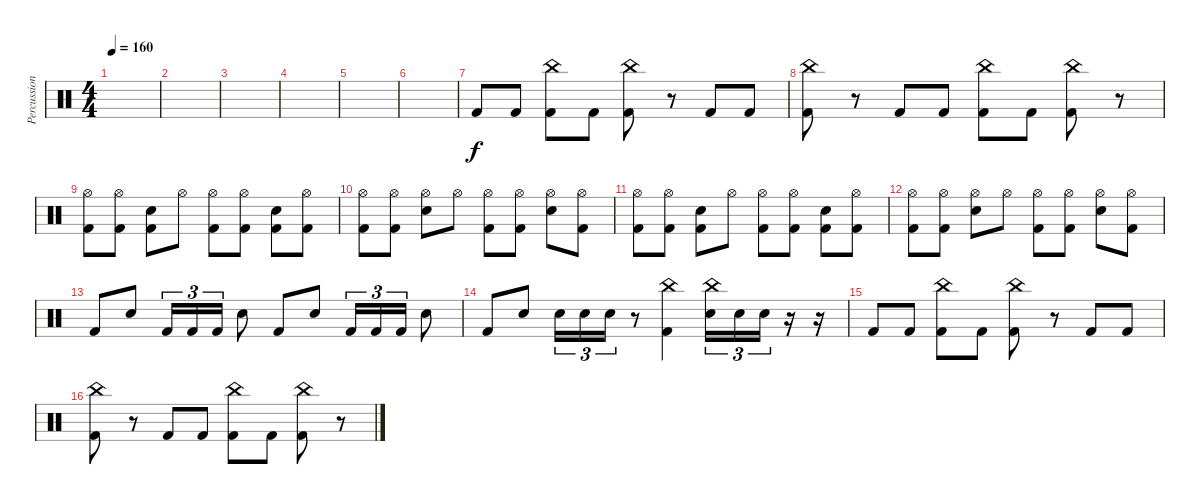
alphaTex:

\track ("Percussion" "Percussion") {instrument percussion}
\staff {score}
\articulation defaults
\ts (4 4)
\tempo 160
\clef neutral
\ks c
|
|
|
|
|
|
"Kick (hit) 2".8 "Kick (hit) 2".8 ("China (hit)" "Kick (hit) 2").8 "Kick (hit) 2".8 ("China (hit)" "Kick (hit) 2").8 r.8 "Kick (hit) 2".8 "Kick (hit) 2".8 |
("China (hit)" "Kick (hit) 2").8 r.8 "Kick (hit) 2".8 "Kick (hit) 2".8 ("China (hit)" "Kick (hit) 2").8 "Kick (hit) 2".8 ("China (hit)" "Kick (hit) 2").8 r.8 |
("Hi-Hat (open)" "Kick (hit) 2").8 ("Hi-Hat (open)" "Kick (hit) 2").8 ("Kick (hit) 2" "Snare (hit) 2").8 "Hi-Hat (open)".8 ("Hi-Hat (open)" "Kick (hit) 2").8 ("Hi-Hat (open)" "Kick (hit) 2").8 ("Kick (hit) 2" "Snare (hit) 2").8 ("Hi-Hat (open)" "Kick (hit) 2").8 |
("Hi-Hat (open)" "Kick (hit) 2").8 ("Hi-Hat (open)" "Kick (hit) 2").8 ("Hi-Hat (open)" "Snare (hit) 2").8 "Hi-Hat (open)".8 ("Hi-Hat (open)" "Kick (hit) 2").8 ("Hi-Hat (open)" "Kick (hit) 2").8 ("Hi-Hat (open)" "Snare (hit) 2").8 ("Hi-Hat (open)" "Kick (hit) 2").8 |
("Hi-Hat (open)" "Kick (hit) 2").8 ("Hi-Hat (open)" "Kick (hit) 2").8 ("Kick (hit) 2" "Snare (hit) 2").8 "Hi-Hat (open)".8 ("Hi-Hat (open)" "Kick (hit) 2").8 ("Hi-Hat (open)" "Kick (hit) 2").8 ("Kick (hit) 2" "Snare (hit) 2").8 ("Hi-Hat (open)" "Kick (hit) 2").8 |
("Hi-Hat (open)" "Kick (hit) 2").8 ("Hi-Hat (open)" "Kick (hit) 2").8 ("Hi-Hat (open)" "Snare (hit) 2").8 "Hi-Hat (open)".8 ("Hi-Hat (open)" "Kick (hit) 2").8 ("Hi-Hat (open)" "Kick (hit) 2").8 ("Hi-Hat (open)" "Snare (hit) 2").8 ("Hi-Hat (open)" "Kick (hit) 2").8 |
"Kick (hit) 2".8 "Snare (hit) 2".8 "Kick (hit) 2".16{tu (3 2)} "Kick (hit) 2".16{tu (3 2)} "Kick (hit) 2".16{tu (3 2)} "Snare (hit) 2".8 "Kick (hit) 2".8 "Snare (hit) 2".8 "Kick (hit) 2".16{tu (3 2)} "Kick (hit) 2".16{tu (3 2)} "Kick (hit) 2".16{tu (3 2)} "Snare (hit) 2".8 |
"Kick (hit) 2".8 "Snare (hit) 2".8 "Snare (hit) 2".16{tu (3 2)} "Snare (hit) 2".16{tu (3 2)} "Snare (hit) 2".16{tu (3 2)} r.8 ("China (hit)" "Kick (hit) 2").4 ("China (hit)" "Snare (hit) 2").16{tu (3 2)} "Snare (hit) 2".16{tu (3 2)} "Snare (hit) 2".16{tu (3 2)} r.16 r.16 |
"Kick (hit) 2".8 "Kick (hit) 2".8 ("China (hit)" "Kick (hit) 2").8 "Kick (hit) 2".8 ("China (hit)" "Kick (hit) 2").8 r.8 "Kick (hit) 2".8 "Kick (hit) 2".8 |
("China (hit)" "Kick (hit) 2").8 r.8 "Kick (hit) 2".8 "Kick (hit) 2".8 ("China (hit)" "Kick (hit) 2").8 "Kick (hit) 2".8 ("China (hit)" "Kick (hit) 2").8 r.8
